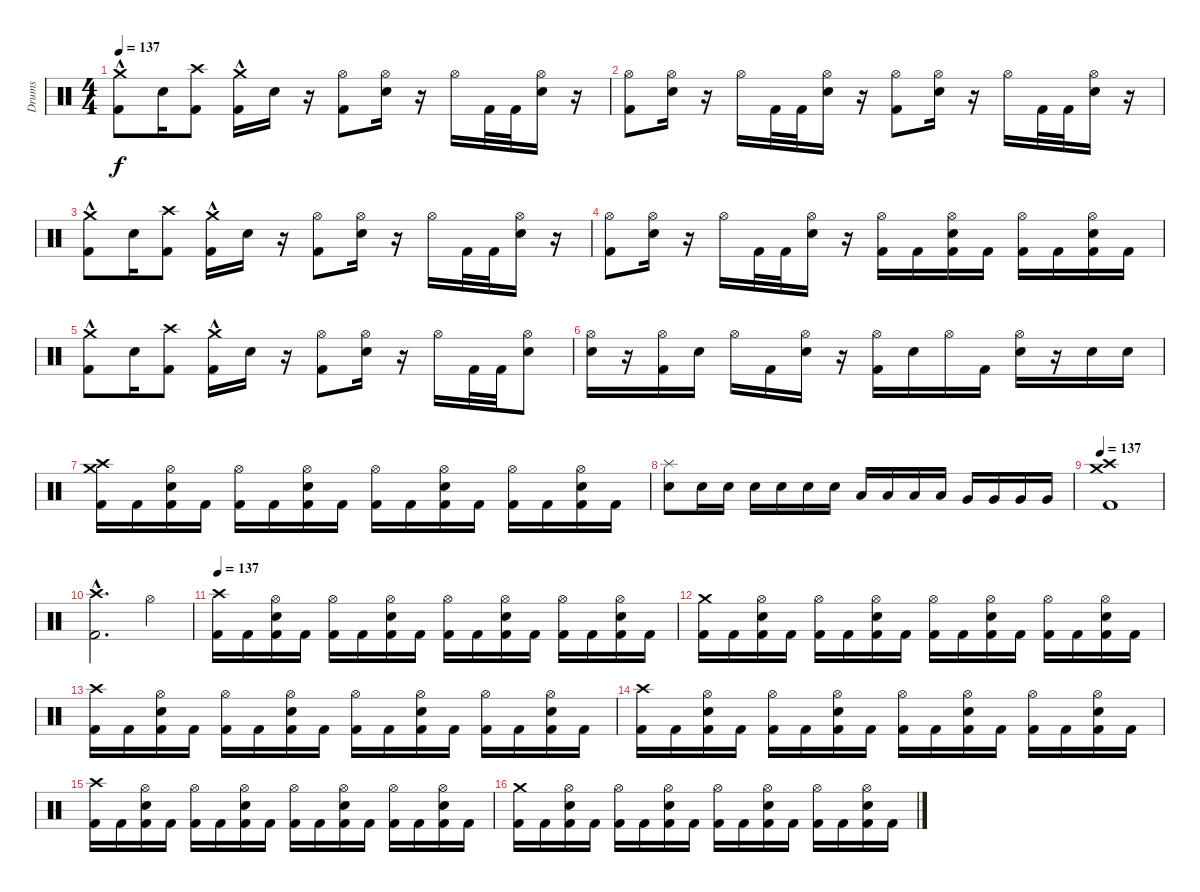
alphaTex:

\track ("Drums" "Drums") {instrument percussion}
\staff {score}
\articulation defaults
\ts (4 4)
\tempo 137
\clef neutral
\ks c
("Crash medium (hit)"{hac} "Kick (hit) 2").8{dy f} "Snare (hit) 2".16 ("Crash high (hit)" "Kick (hit) 2").8 ("Crash medium (hit)"{hac} "Kick (hit) 2").16 "Snare (hit) 2".16 r.16 ("Hi-Hat (open)" "Kick (hit) 2").8 ("Hi-Hat (open)" "Snare (hit) 2").16 r.16 "Hi-Hat (open)".16 "Kick (hit) 2".32 "Kick (hit) 2".32 ("Hi-Hat (open)" "Snare (hit) 2").16 r.16 |
("Hi-Hat (open)" "Kick (hit) 2").8 ("Hi-Hat (open)" "Snare (hit) 2").16 r.16 "Hi-Hat (open)".16 "Kick (hit) 2".32 "Kick (hit) 2".32 ("Hi-Hat (open)" "Snare (hit) 2").16 r.16 ("Hi-Hat (open)" "Kick (hit) 2").8 ("Hi-Hat (open)" "Snare (hit) 2").16 r.16 "Hi-Hat (open)".16 "Kick (hit) 2".32 "Kick (hit) 2".32 ("Hi-Hat (open)" "Snare (hit) 2").16 r.16 |
("Crash medium (hit)"{hac} "Kick (hit) 2").8 "Snare (hit) 2".16 ("Crash high (hit)" "Kick (hit) 2").8 ("Crash medium (hit)"{hac} "Kick (hit) 2").16 "Snare (hit) 2".16 r.16 ("Hi-Hat (open)" "Kick (hit) 2").8 ("Hi-Hat (open)" "Snare (hit) 2").16 r.16 "Hi-Hat (open)".16 "Kick (hit) 2".32 "Kick (hit) 2".32 ("Hi-Hat (open)" "Snare (hit) 2").16 r.16 |
("Hi-Hat (open)" "Kick (hit) 2").8 ("Hi-Hat (open)" "Snare (hit) 2").16 r.16 "Hi-Hat (open)".16 "Kick (hit) 2".32 "Kick (hit) 2".32 ("Hi-Hat (open)" "Snare (hit) 2").16 r.16 ("Hi-Hat (open)" "Kick (hit) 2").16 "Kick (hit) 2".16 ("Hi-Hat (open)" "Snare (hit) 2" "Kick (hit) 2").16 "Kick (hit) 2".16 ("Hi-Hat (open)" "Kick (hit) 2").16 "Kick (hit) 2".16 ("Hi-Hat (open)" "Snare (hit) 2" "Kick (hit) 2").16 "Kick (hit) 2".16 |
("Crash medium (hit)"{hac} "Kick (hit) 2").8 "Snare (hit) 2".16 ("Crash high (hit)" "Kick (hit) 2").8 ("Crash medium (hit)"{hac} "Kick (hit) 2").16 "Snare (hit) 2".16 r.16 ("Hi-Hat (open)" "Kick (hit) 2").8 ("Hi-Hat (open)" "Snare (hit) 2").16 r.16 "Hi-Hat (open)".16 "Kick (hit) 2".32 "Kick (hit) 2".32 ("Hi-Hat (open)" "Snare (hit) 2").8 |
("Hi-Hat (open)" "Snare (hit) 2").16 r.16 ("Hi-Hat (open)" "Kick (hit) 2").16 "Snare (hit) 2".16 "Hi-Hat (open)".16 "Kick (hit) 2".16 ("Hi-Hat (open)" "Snare (hit) 2").16 r.16 ("Hi-Hat (open)" "Kick (hit) 2").16 "Snare (hit) 2".16 "Hi-Hat (open)".16 "Kick (hit) 2".16 ("Hi-Hat (open)" "Snare (hit) 2").16 r.16 "Snare (hit) 2".16 "Snare (hit) 2".16 |
("Crash medium (hit)" "Crash high (hit)" "Kick (hit) 2").16 "Kick (hit) 2".16 ("Hi-Hat (open)" "Snare (hit) 2" "Kick (hit) 2").16 "Kick (hit) 2".16 ("Hi-Hat (open)" "Kick (hit) 2").16 "Kick (hit) 2".16 ("Hi-Hat (open)" "Snare (hit) 2" "Kick (hit) 2").16 "Kick (hit) 2".16 ("Hi-Hat (open)" "Kick (hit) 2").16 "Kick (hit) 2".16 ("Hi-Hat (open)" "Snare (hit) 2" "Kick (hit) 2").16 "Kick (hit) 2".16 ("Hi-Hat (open)" "Kick (hit) 2").16 "Kick (hit) 2".16 ("Hi-Hat (open)" "Snare (hit) 2" "Kick (hit) 2").16 "Kick (hit) 2".16 |
("Splash (hit)" "Snare (hit) 2").8 "Snare (hit) 2".16 "Snare (hit) 2".16 "Snare (hit) 2".16 "Snare (hit) 2".16 "Snare (hit) 2".16 "Snare (hit) 2".16 "Low Tom (hit)".16 "Low Tom (hit)".16 "Low Tom (hit)".16 "Low Tom (hit)".16 "Very Low Tom (hit)".16 "Very Low Tom (hit)".16 "Very Low Tom (hit)".16 "Very Low Tom (hit)".16 |
\tempo 137
("Crash high (hit)" "Crash medium (hit)" "Kick (hit) 2").1 |
("Crash high (hit)" "Kick (hit) 2"{hac}).2{d} "Hi-Hat (open)".4 |
\tempo 137
("Crash high (hit)" "Kick (hit) 2").16 "Kick (hit) 2".16 ("Hi-Hat (open)" "Snare (hit) 2" "Kick (hit) 2").16 "Kick (hit) 2".16 ("Hi-Hat (open)" "Kick (hit) 2").16 "Kick (hit) 2".16 ("Hi-Hat (open)" "Snare (hit) 2" "Kick (hit) 2").16 "Kick (hit) 2".16 ("Hi-Hat (open)" "Kick (hit) 2").16 "Kick (hit) 2".16 ("Hi-Hat (open)" "Snare (hit) 2" "Kick (hit) 2").16 "Kick (hit) 2".16 ("Hi-Hat (open)" "Kick (hit) 2").16 "Kick (hit) 2".16 ("Hi-Hat (open)" "Snare (hit) 2" "Kick (hit) 2").16 "Kick (hit) 2".16 |
("Crash medium (hit)" "Kick (hit) 2").16 "Kick (hit) 2".16 ("Hi-Hat (open)" "Snare (hit) 2" "Kick (hit) 2").16 "Kick (hit) 2".16 ("Hi-Hat (open)" "Kick (hit) 2").16 "Kick (hit) 2".16 ("Hi-Hat (open)" "Snare (hit) 2" "Kick (hit) 2").16 "Kick (hit) 2".16 ("Hi-Hat (open)" "Kick (hit) 2").16 "Kick (hit) 2".16 ("Hi-Hat (open)" "Snare (hit) 2" "Kick (hit) 2").16 "Kick (hit) 2".16 ("Hi-Hat (open)" "Kick (hit) 2").16 "Kick (hit) 2".16 ("Hi-Hat (open)" "Snare (hit) 2" "Kick (hit) 2").16 "Kick (hit) 2".16 |
("Crash high (hit)" "Kick (hit) 2").16 "Kick (hit) 2".16 ("Hi-Hat (open)" "Snare (hit) 2" "Kick (hit) 2").16 "Kick (hit) 2".16 ("Hi-Hat (open)" "Kick (hit) 2").16 "Kick (hit) 2".16 ("Hi-Hat (open)" "Snare (hit) 2" "Kick (hit) 2").16 "Kick (hit) 2".16 ("Hi-Hat (open)" "Kick (hit) 2").16 "Kick (hit) 2".16 ("Hi-Hat (open)" "Snare (hit) 2" "Kick (hit) 2").16 "Kick (hit) 2".16 ("Hi-Hat (open)" "Kick (hit) 2").16 "Kick (hit) 2".16 ("Hi-Hat (open)" "Snare (hit) 2" "Kick (hit) 2").16 "Kick (hit) 2".16 |
("Crash high (hit)" "Kick (hit) 2").16 "Kick (hit) 2".16 ("Hi-Hat (open)" "Snare (hit) 2" "Kick (hit) 2").16 "Kick (hit) 2".16 ("Hi-Hat (open)" "Kick (hit) 2").16 "Kick (hit) 2".16 ("Hi-Hat (open)" "Snare (hit) 2" "Kick (hit) 2").16 "Kick (hit) 2".16 ("Hi-Hat (open)" "Kick (hit) 2").16 "Kick (hit) 2".16 ("Hi-Hat (open)" "Snare (hit) 2" "Kick (hit) 2").16 "Kick (hit) 2".16 ("Hi-Hat (open)" "Kick (hit) 2").16 "Kick (hit) 2".16 ("Hi-Hat (open)" "Snare (hit) 2" "Kick (hit) 2").16 "Kick (hit) 2".16 |
("Crash high (hit)" "Kick (hit) 2").16 "Kick (hit) 2".16 ("Hi-Hat (open)" "Snare (hit) 2" "Kick (hit) 2").16 "Kick (hit) 2".16 ("Hi-Hat (open)" "Kick (hit) 2").16 "Kick (hit) 2".16 ("Hi-Hat (open)" "Snare (hit) 2" "Kick (hit) 2").16 "Kick (hit) 2".16 ("Hi-Hat (open)" "Kick (hit) 2").16 "Kick (hit) 2".16 ("Hi-Hat (open)" "Snare (hit) 2" "Kick (hit) 2").16 "Kick (hit) 2".16 ("Hi-Hat (open)" "Kick (hit) 2").16 "Kick (hit) 2".16 ("Hi-Hat (open)" "Snare (hit) 2" "Kick (hit) 2").16 "Kick (hit) 2".16 |
("Crash medium (hit)" "Kick (hit) 2").16 "Kick (hit) 2".16 ("Hi-Hat (open)" "Snare (hit) 2" "Kick (hit) 2").16 "Kick (hit) 2".16 ("Hi-Hat (open)" "Kick (hit) 2").16 "Kick (hit) 2".16 ("Hi-Hat (open)" "Snare (hit) 2" "Kick (hit) 2").16 "Kick (hit) 2".16 ("Hi-Hat (open)" "Kick (hit) 2").16 "Kick (hit) 2".16 ("Hi-Hat (open)" "Snare (hit) 2" "Kick (hit) 2").16 "Kick (hit) 2".16 ("Hi-Hat (open)" "Kick (hit) 2").16 "Kick (hit) 2".16 ("Hi-Hat (open)" "Snare (hit) 2" "Kick (hit) 2").16 "Kick (hit) 2".16
